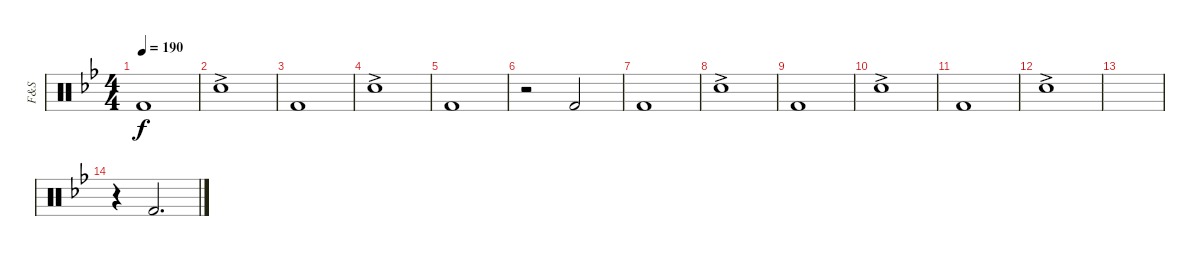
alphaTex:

\track ("F&S" "F&S") {instrument percussion}
\staff {score}
\articulation defaults
\ts (4 4)
\tempo 190
\clef neutral
\ks bb "Kick (hit) 2".1{dy f}
|
"Snare (hit) 2"{ac}.1 |
"Kick (hit) 2".1 |
"Snare (hit) 2"{ac}.1 |
"Kick (hit) 2".1 |
r.2 "Kick (hit) 2".2 |
"Kick (hit) 2".1 |
"Snare (hit) 2"{ac}.1 |
"Kick (hit) 2".1 |
"Snare (hit) 2"{ac}.1 |
"Kick (hit) 2".1 |
"Snare (hit) 2"{ac}.1 |
|
r.4 "Kick (hit) 2".2{d}
